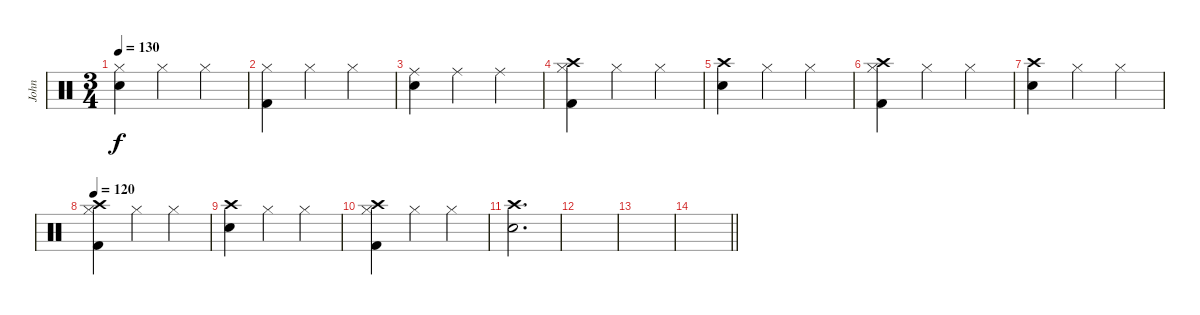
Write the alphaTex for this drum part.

\track ("John" "John") {instrument percussion}
\staff {score}
\articulation defaults
\ts (3 4)
\tempo 130
\clef neutral
\ks c
("Hi-Hat (closed)" "Snare (hit) 2").4{dy f} "Hi-Hat (closed)".4 "Hi-Hat (closed)".4 |
("Hi-Hat (closed)" "Kick (hit) 2").4 "Hi-Hat (closed)".4 "Hi-Hat (closed)".4 |
("Ride (middle)" "Snare (hit) 2").4 "Ride (middle)".4 "Ride (middle)".4 |
("Crash high (hit)" "Hi-Hat (closed)" "Kick (hit) 2").4 "Hi-Hat (closed)".4 "Hi-Hat (closed)".4 |
("Crash high (hit)" "Snare (hit) 2").4 "Hi-Hat (closed)".4 "Hi-Hat (closed)".4 |
("Crash high (hit)" "Hi-Hat (closed)" "Kick (hit) 2").4 "Hi-Hat (closed)".4 "Hi-Hat (closed)".4 |
("Crash high (hit)" "Snare (hit) 2").4 "Hi-Hat (closed)".4 "Hi-Hat (closed)".4 |
\tempo 120
("Crash high (hit)" "Hi-Hat (closed)" "Kick (hit) 2").4 "Hi-Hat (closed)".4 "Hi-Hat (closed)".4 |
("Crash high (hit)" "Snare (hit) 2").4 "Hi-Hat (closed)".4 "Hi-Hat (closed)".4 |
("Crash high (hit)" "Hi-Hat (closed)" "Kick (hit) 2").4 "Hi-Hat (closed)".4 "Hi-Hat (closed)".4 |
("Crash high (hit)" "Snare (hit) 2").2{d} |
|
|
\barLineRight lightlight
